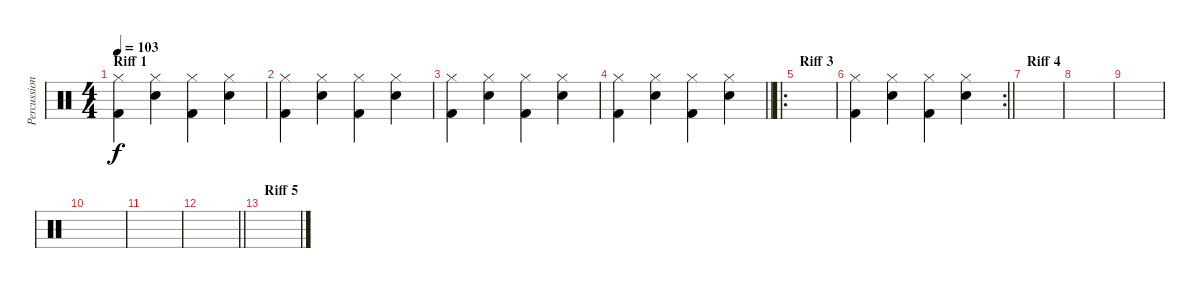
\track ("Percussion" "Percussion") {instrument percussion}
\staff {score}
\articulation defaults
\ts (4 4)
\section ("" "Riff 1")
\tempo 103
\clef neutral
\ks c
("Hi-Hat (closed)" "Kick (hit) 2").4{dy f} ("Hi-Hat (closed)" "Electric Snare (hit)").4 ("Hi-Hat (closed)" "Kick (hit) 2").4 ("Hi-Hat (closed)" "Electric Snare (hit)").4 |
("Hi-Hat (closed)" "Kick (hit) 2").4 ("Hi-Hat (closed)" "Electric Snare (hit)").4 ("Hi-Hat (closed)" "Kick (hit) 2").4 ("Hi-Hat (closed)" "Electric Snare (hit)").4 |
("Hi-Hat (closed)" "Kick (hit) 2").4 ("Hi-Hat (closed)" "Electric Snare (hit)").4 ("Hi-Hat (closed)" "Kick (hit) 2").4 ("Hi-Hat (closed)" "Electric Snare (hit)").4 |
\barLineRight lightlight
("Hi-Hat (closed)" "Kick (hit) 2").4 ("Hi-Hat (closed)" "Electric Snare (hit)").4 ("Hi-Hat (closed)" "Kick (hit) 2").4 ("Hi-Hat (closed)" "Electric Snare (hit)").4 |
\ro
\section ("" "Riff 3")
|
\rc 2
\barLineRight lightlight
("Hi-Hat (closed)" "Kick (hit) 2").4 ("Hi-Hat (closed)" "Electric Snare (hit)").4 ("Hi-Hat (closed)" "Kick (hit) 2").4 ("Hi-Hat (closed)" "Electric Snare (hit)").4 |
\section ("" "Riff 4")
|
|
|
|
|
\barLineRight lightlight
|
\section ("" "Riff 5")
